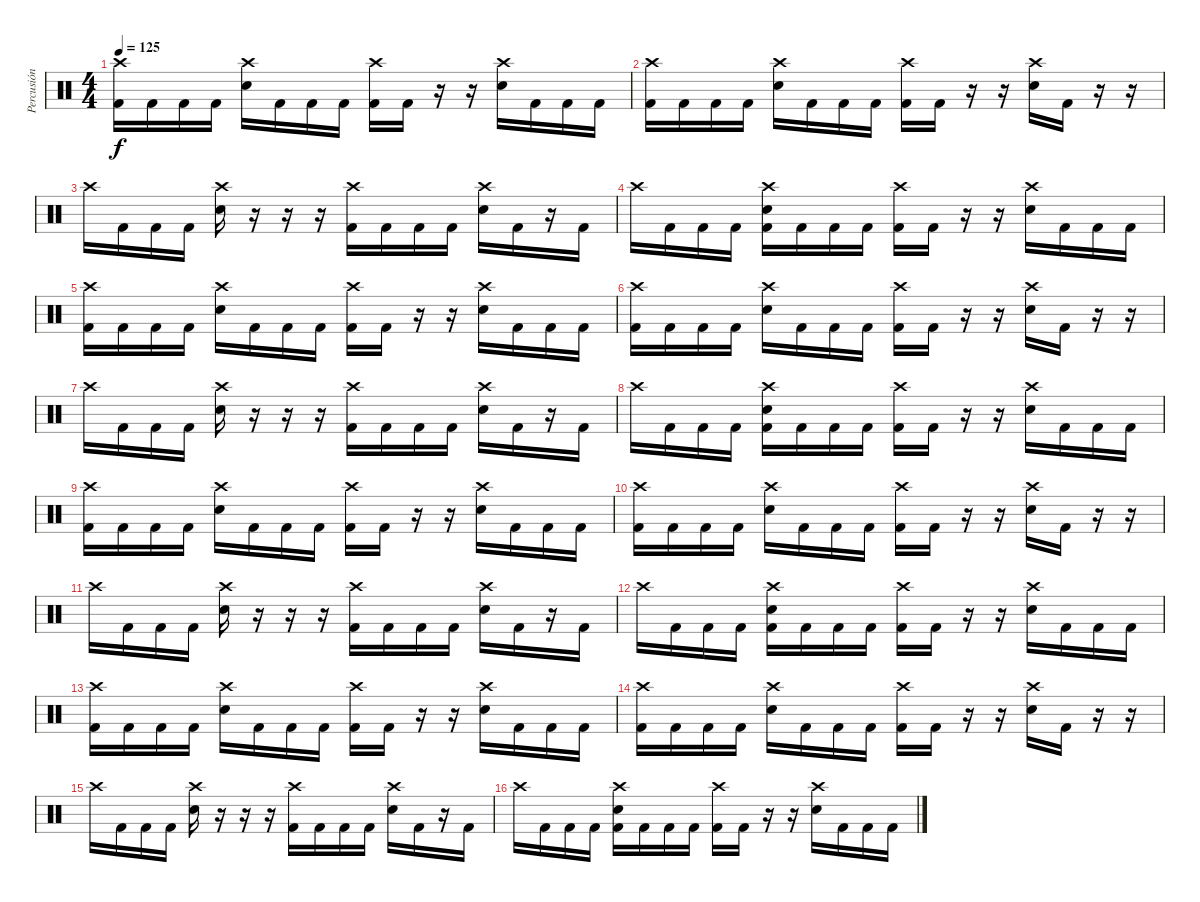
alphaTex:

\track ("Percusión" "Percusión") {instrument percussion}
\staff {score}
\articulation defaults
\ts (4 4)
\tempo 125
\clef neutral
\ks c
("Crash high (hit)" "Kick (hit) 2").16{dy f} "Kick (hit) 2".16 "Kick (hit) 2".16 "Kick (hit) 2".16 ("Crash high (hit)" "Electric Snare (hit)").16 "Kick (hit) 2".16 "Kick (hit) 2".16 "Kick (hit) 2".16 ("Crash high (hit)" "Kick (hit) 2").16 "Kick (hit) 2".16 r.16 r.16 ("Crash high (hit)" "Electric Snare (hit)").16 "Kick (hit) 2".16 "Kick (hit) 2".16 "Kick (hit) 2".16 |
("Crash high (hit)" "Kick (hit) 2").16 "Kick (hit) 2".16 "Kick (hit) 2".16 "Kick (hit) 2".16 ("Crash high (hit)" "Electric Snare (hit)").16 "Kick (hit) 2".16 "Kick (hit) 2".16 "Kick (hit) 2".16 ("Crash high (hit)" "Kick (hit) 2").16 "Kick (hit) 2".16 r.16 r.16 ("Crash high (hit)" "Electric Snare (hit)").16 "Kick (hit) 2".16 r.16 r.16 |
"Crash high (hit)".16 "Kick (hit) 2".16 "Kick (hit) 2".16 "Kick (hit) 2".16 ("Crash high (hit)" "Electric Snare (hit)").16 r.16 r.16 r.16 ("Crash high (hit)" "Kick (hit) 2").16 "Kick (hit) 2".16 "Kick (hit) 2".16 "Kick (hit) 2".16 ("Crash high (hit)" "Electric Snare (hit)").16 "Kick (hit) 2".16 r.16 "Kick (hit) 2".16 |
"Crash high (hit)".16 "Kick (hit) 2".16 "Kick (hit) 2".16 "Kick (hit) 2".16 ("Crash high (hit)" "Electric Snare (hit)" "Kick (hit) 2").16 "Kick (hit) 2".16 "Kick (hit) 2".16 "Kick (hit) 2".16 ("Crash high (hit)" "Kick (hit) 2").16 "Kick (hit) 2".16 r.16 r.16 ("Crash high (hit)" "Electric Snare (hit)").16 "Kick (hit) 2".16 "Kick (hit) 2".16 "Kick (hit) 2".16 |
("Crash high (hit)" "Kick (hit) 2").16 "Kick (hit) 2".16 "Kick (hit) 2".16 "Kick (hit) 2".16 ("Crash high (hit)" "Electric Snare (hit)").16 "Kick (hit) 2".16 "Kick (hit) 2".16 "Kick (hit) 2".16 ("Crash high (hit)" "Kick (hit) 2").16 "Kick (hit) 2".16 r.16 r.16 ("Crash high (hit)" "Electric Snare (hit)").16 "Kick (hit) 2".16 "Kick (hit) 2".16 "Kick (hit) 2".16 |
("Crash high (hit)" "Kick (hit) 2").16 "Kick (hit) 2".16 "Kick (hit) 2".16 "Kick (hit) 2".16 ("Crash high (hit)" "Electric Snare (hit)").16 "Kick (hit) 2".16 "Kick (hit) 2".16 "Kick (hit) 2".16 ("Crash high (hit)" "Kick (hit) 2").16 "Kick (hit) 2".16 r.16 r.16 ("Crash high (hit)" "Electric Snare (hit)").16 "Kick (hit) 2".16 r.16 r.16 |
"Crash high (hit)".16 "Kick (hit) 2".16 "Kick (hit) 2".16 "Kick (hit) 2".16 ("Crash high (hit)" "Electric Snare (hit)").16 r.16 r.16 r.16 ("Crash high (hit)" "Kick (hit) 2").16 "Kick (hit) 2".16 "Kick (hit) 2".16 "Kick (hit) 2".16 ("Crash high (hit)" "Electric Snare (hit)").16 "Kick (hit) 2".16 r.16 "Kick (hit) 2".16 |
"Crash high (hit)".16 "Kick (hit) 2".16 "Kick (hit) 2".16 "Kick (hit) 2".16 ("Crash high (hit)" "Electric Snare (hit)" "Kick (hit) 2").16 "Kick (hit) 2".16 "Kick (hit) 2".16 "Kick (hit) 2".16 ("Crash high (hit)" "Kick (hit) 2").16 "Kick (hit) 2".16 r.16 r.16 ("Crash high (hit)" "Electric Snare (hit)").16 "Kick (hit) 2".16 "Kick (hit) 2".16 "Kick (hit) 2".16 |
("Crash high (hit)" "Kick (hit) 2").16 "Kick (hit) 2".16 "Kick (hit) 2".16 "Kick (hit) 2".16 ("Crash high (hit)" "Electric Snare (hit)").16 "Kick (hit) 2".16 "Kick (hit) 2".16 "Kick (hit) 2".16 ("Crash high (hit)" "Kick (hit) 2").16 "Kick (hit) 2".16 r.16 r.16 ("Crash high (hit)" "Electric Snare (hit)").16 "Kick (hit) 2".16 "Kick (hit) 2".16 "Kick (hit) 2".16 |
("Crash high (hit)" "Kick (hit) 2").16 "Kick (hit) 2".16 "Kick (hit) 2".16 "Kick (hit) 2".16 ("Crash high (hit)" "Electric Snare (hit)").16 "Kick (hit) 2".16 "Kick (hit) 2".16 "Kick (hit) 2".16 ("Crash high (hit)" "Kick (hit) 2").16 "Kick (hit) 2".16 r.16 r.16 ("Crash high (hit)" "Electric Snare (hit)").16 "Kick (hit) 2".16 r.16 r.16 |
"Crash high (hit)".16 "Kick (hit) 2".16 "Kick (hit) 2".16 "Kick (hit) 2".16 ("Crash high (hit)" "Electric Snare (hit)").16 r.16 r.16 r.16 ("Crash high (hit)" "Kick (hit) 2").16 "Kick (hit) 2".16 "Kick (hit) 2".16 "Kick (hit) 2".16 ("Crash high (hit)" "Electric Snare (hit)").16 "Kick (hit) 2".16 r.16 "Kick (hit) 2".16 |
"Crash high (hit)".16 "Kick (hit) 2".16 "Kick (hit) 2".16 "Kick (hit) 2".16 ("Crash high (hit)" "Electric Snare (hit)" "Kick (hit) 2").16 "Kick (hit) 2".16 "Kick (hit) 2".16 "Kick (hit) 2".16 ("Crash high (hit)" "Kick (hit) 2").16 "Kick (hit) 2".16 r.16 r.16 ("Crash high (hit)" "Electric Snare (hit)").16 "Kick (hit) 2".16 "Kick (hit) 2".16 "Kick (hit) 2".16 |
("Crash high (hit)" "Kick (hit) 2").16 "Kick (hit) 2".16 "Kick (hit) 2".16 "Kick (hit) 2".16 ("Crash high (hit)" "Electric Snare (hit)").16 "Kick (hit) 2".16 "Kick (hit) 2".16 "Kick (hit) 2".16 ("Crash high (hit)" "Kick (hit) 2").16 "Kick (hit) 2".16 r.16 r.16 ("Crash high (hit)" "Electric Snare (hit)").16 "Kick (hit) 2".16 "Kick (hit) 2".16 "Kick (hit) 2".16 |
("Crash high (hit)" "Kick (hit) 2").16 "Kick (hit) 2".16 "Kick (hit) 2".16 "Kick (hit) 2".16 ("Crash high (hit)" "Electric Snare (hit)").16 "Kick (hit) 2".16 "Kick (hit) 2".16 "Kick (hit) 2".16 ("Crash high (hit)" "Kick (hit) 2").16 "Kick (hit) 2".16 r.16 r.16 ("Crash high (hit)" "Electric Snare (hit)").16 "Kick (hit) 2".16 r.16 r.16 |
"Crash high (hit)".16 "Kick (hit) 2".16 "Kick (hit) 2".16 "Kick (hit) 2".16 ("Crash high (hit)" "Electric Snare (hit)").16 r.16 r.16 r.16 ("Crash high (hit)" "Kick (hit) 2").16 "Kick (hit) 2".16 "Kick (hit) 2".16 "Kick (hit) 2".16 ("Crash high (hit)" "Electric Snare (hit)").16 "Kick (hit) 2".16 r.16 "Kick (hit) 2".16 |
"Crash high (hit)".16 "Kick (hit) 2".16 "Kick (hit) 2".16 "Kick (hit) 2".16 ("Crash high (hit)" "Electric Snare (hit)" "Kick (hit) 2").16 "Kick (hit) 2".16 "Kick (hit) 2".16 "Kick (hit) 2".16 ("Crash high (hit)" "Kick (hit) 2").16 "Kick (hit) 2".16 r.16 r.16 ("Crash high (hit)" "Electric Snare (hit)").16 "Kick (hit) 2".16 "Kick (hit) 2".16 "Kick (hit) 2".16
